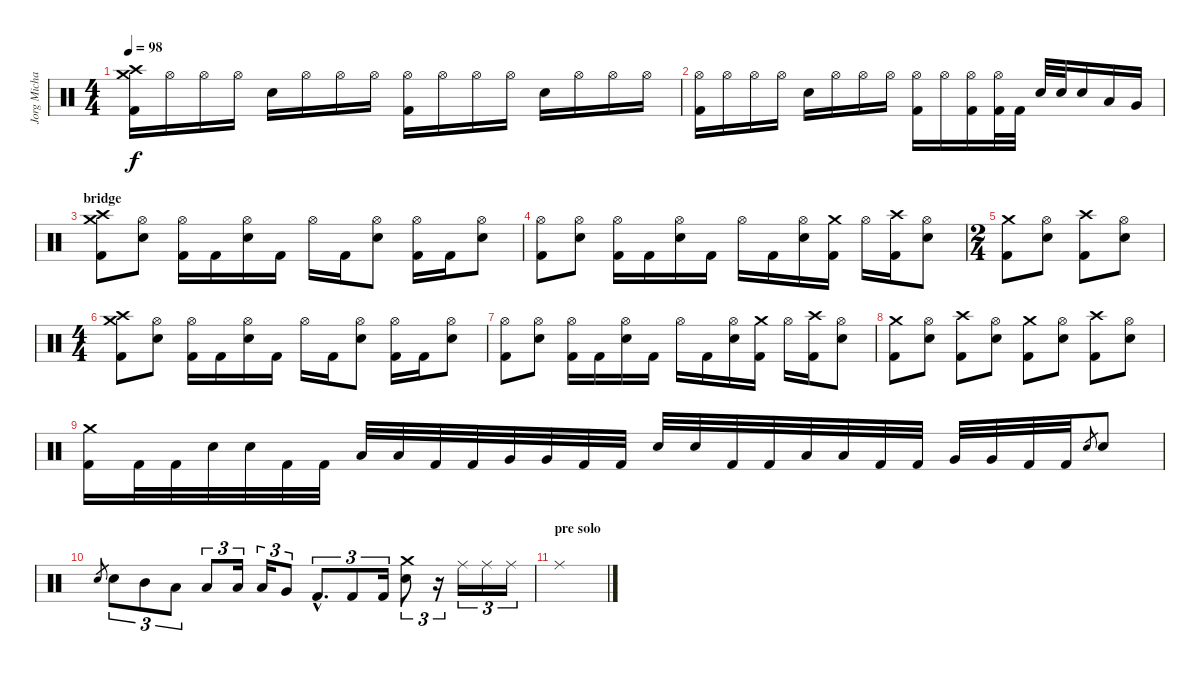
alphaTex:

\track ("Jorg Michael" "Jorg Micha") {instrument percussion}
\staff {score}
\articulation defaults
\ts (4 4)
\tempo 98
\clef neutral
\ks c
("Crash medium (hit)" "Crash high (hit)" "Kick (hit) 2").16{dy f} "Hi-Hat (open)".16 "Hi-Hat (open)".16 "Hi-Hat (open)".16 "Electric Snare (hit)".16 "Hi-Hat (open)".16 "Hi-Hat (open)".16 "Hi-Hat (open)".16 ("Hi-Hat (open)" "Kick (hit) 2").16 "Hi-Hat (open)".16 "Hi-Hat (open)".16 "Hi-Hat (open)".16 "Electric Snare (hit)".16 "Hi-Hat (open)".16 "Hi-Hat (open)".16 "Hi-Hat (open)".16 |
("Hi-Hat (open)" "Kick (hit) 2").16 "Hi-Hat (open)".16 "Hi-Hat (open)".16 "Hi-Hat (open)".16 "Electric Snare (hit)".16 "Hi-Hat (open)".16 "Hi-Hat (open)".16 "Hi-Hat (open)".16 ("Hi-Hat (open)" "Kick (hit) 2").16 "Hi-Hat (open)".16 ("Hi-Hat (open)" "Kick (hit) 2").16 ("Hi-Hat (open)" "Kick (hit) 2").32 "Kick (hit) 2".32 "Electric Snare (hit)".32 "Electric Snare (hit)".32 "Electric Snare (hit)".16 "Low Tom (hit)".16 "Very Low Tom (hit)".16 |
\section ("" "bridge")
("Crash medium (hit)" "Crash high (hit)" "Kick (hit) 2").8 ("Hi-Hat (open)" "Electric Snare (hit)").8 ("Hi-Hat (open)" "Kick (hit) 2").16 "Kick (hit) 2".16 ("Hi-Hat (open)" "Electric Snare (hit)").16 "Kick (hit) 2".16 "Hi-Hat (open)".16 "Kick (hit) 2".16 ("Hi-Hat (open)" "Electric Snare (hit)").8 ("Hi-Hat (open)" "Kick (hit) 2").16 "Kick (hit) 2".16 ("Hi-Hat (open)" "Electric Snare (hit)").8 |
("Hi-Hat (open)" "Kick (hit) 2").8 ("Hi-Hat (open)" "Electric Snare (hit)").8 ("Hi-Hat (open)" "Kick (hit) 2").16 "Kick (hit) 2".16 ("Hi-Hat (open)" "Electric Snare (hit)").16 "Kick (hit) 2".16 "Hi-Hat (open)".16 "Kick (hit) 2".16 ("Hi-Hat (open)" "Electric Snare (hit)").16 ("Crash medium (hit)" "Kick (hit) 2").16 "Hi-Hat (open)".16 ("Crash high (hit)" "Kick (hit) 2").16 ("Hi-Hat (open)" "Electric Snare (hit)").8 |
\ts (2 4)
("Crash medium (hit)" "Kick (hit) 2").8 ("Hi-Hat (open)" "Electric Snare (hit)").8 ("Crash high (hit)" "Kick (hit) 2").8 ("Hi-Hat (open)" "Electric Snare (hit)").8 |
\ts (4 4)
("Crash medium (hit)" "Crash high (hit)" "Kick (hit) 2").8 ("Hi-Hat (open)" "Electric Snare (hit)").8 ("Hi-Hat (open)" "Kick (hit) 2").16 "Kick (hit) 2".16 ("Hi-Hat (open)" "Electric Snare (hit)").16 "Kick (hit) 2".16 "Hi-Hat (open)".16 "Kick (hit) 2".16 ("Hi-Hat (open)" "Electric Snare (hit)").8 ("Hi-Hat (open)" "Kick (hit) 2").16 "Kick (hit) 2".16 ("Hi-Hat (open)" "Electric Snare (hit)").8 |
("Hi-Hat (open)" "Kick (hit) 2").8 ("Hi-Hat (open)" "Electric Snare (hit)").8 ("Hi-Hat (open)" "Kick (hit) 2").16 "Kick (hit) 2".16 ("Hi-Hat (open)" "Electric Snare (hit)").16 "Kick (hit) 2".16 "Hi-Hat (open)".16 "Kick (hit) 2".16 ("Hi-Hat (open)" "Electric Snare (hit)").16 ("Crash medium (hit)" "Kick (hit) 2").16 "Hi-Hat (open)".16 ("Crash high (hit)" "Kick (hit) 2").16 ("Hi-Hat (open)" "Electric Snare (hit)").8 |
("Crash medium (hit)" "Kick (hit) 2").8 ("Hi-Hat (open)" "Electric Snare (hit)").8 ("Crash high (hit)" "Kick (hit) 2").8 ("Hi-Hat (open)" "Electric Snare (hit)").8 ("Crash medium (hit)" "Kick (hit) 2").8 ("Hi-Hat (open)" "Electric Snare (hit)").8 ("Crash high (hit)" "Kick (hit) 2").8 ("Hi-Hat (open)" "Electric Snare (hit)").8 |
("Crash medium (hit)" "Kick (hit) 2").16 "Kick (hit) 2".32 "Kick (hit) 2".32 "Electric Snare (hit)".32 "Electric Snare (hit)".32 "Kick (hit) 2".32 "Kick (hit) 2".32 "Low Tom (hit)".32 "Low Tom (hit)".32 "Kick (hit) 2".32 "Kick (hit) 2".32 "Very Low Tom (hit)".32 "Very Low Tom (hit)".32 "Kick (hit) 2".32 "Kick (hit) 2".32 "Electric Snare (hit)".32 "Electric Snare (hit)".32 "Kick (hit) 2".32 "Kick (hit) 2".32 "Low Tom (hit)".32 "Low Tom (hit)".32 "Kick (hit) 2".32 "Kick (hit) 2".32 "Very Low Tom (hit)".32 "Very Low Tom (hit)".32 "Kick (hit) 2".32 "Kick (hit) 2".32 "Electric Snare (hit)".8{gr} "Electric Snare (hit)".8 |
"Electric Snare (hit)".8{gr} "Electric Snare (hit)".8{tu (3 2)} "Mid Tom (hit)".8{tu (3 2)} "Low Tom (hit)".8{tu (3 2)} "Low Tom (hit)".8{tu (3 2)} "Low Tom (hit)".16{tu (3 2)} "Low Tom (hit)".16{tu (3 2)} "Very Low Tom (hit)".8{tu (3 2)} "Kick (hit) 2"{hac}.8{d tu (3 2)} "Kick (hit) 2".8{tu (3 2)} "Kick (hit) 2".16{tu (3 2)} ("Crash medium (hit)" "Electric Snare (hit)").8{tu (3 2)} r.16{tu (3 2)} "Ride (middle)".16{tu (3 2)} "Ride (middle)".16{tu (3 2)} "Ride (middle)".16{tu (3 2)} |
\section ("" "pre solo")
"Ride (middle)".1
